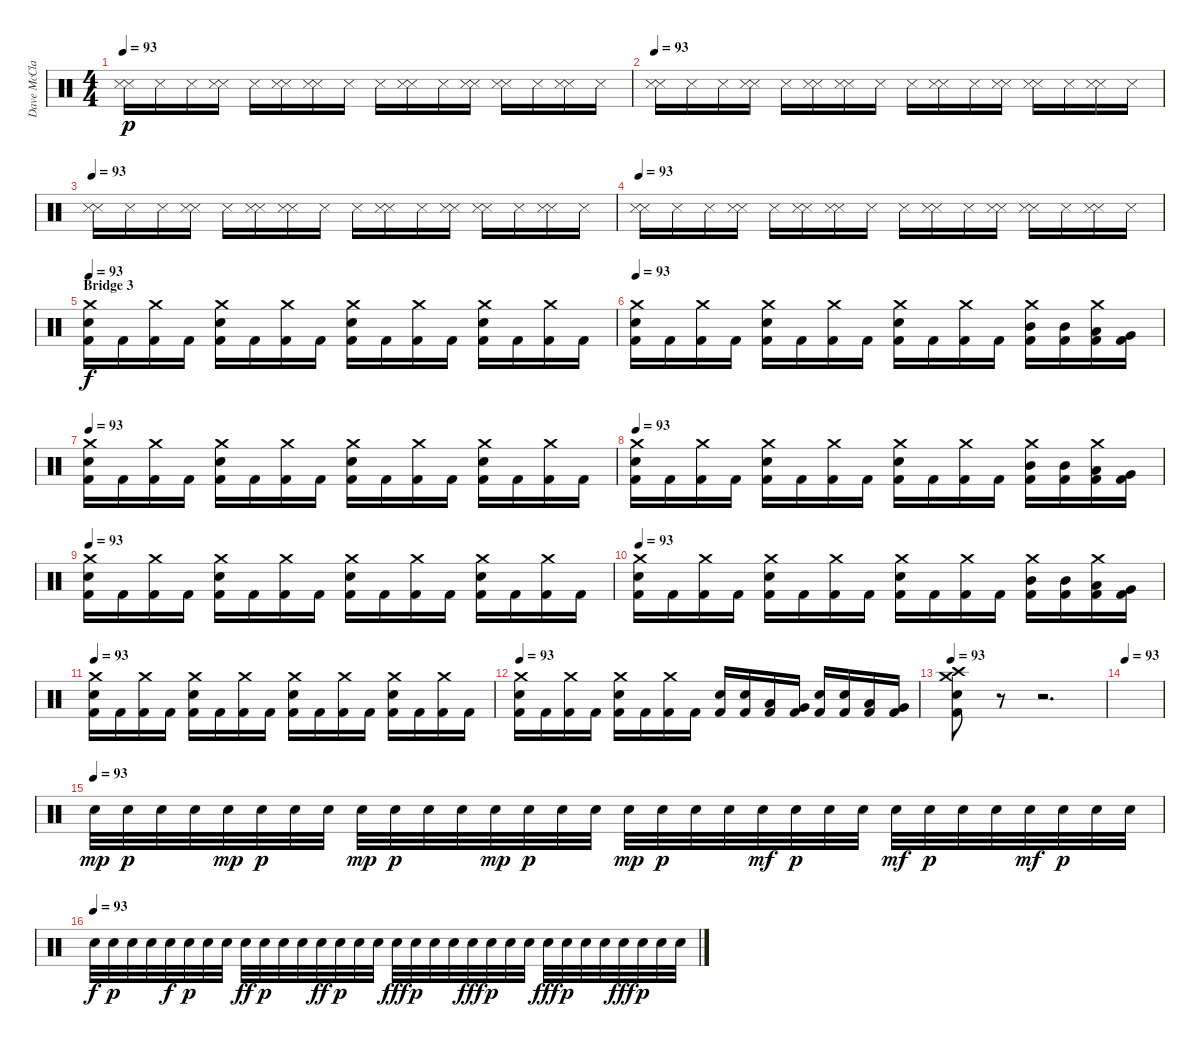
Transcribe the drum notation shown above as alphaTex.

\track ("Dave McClain" "Dave McCla") {instrument percussion}
\staff {score}
\articulation defaults
\ts (4 4)
\tempo 93
\clef neutral
\ks c
("Snare (side stick) 3" "Snare (side stick) 3").16{dy p} "Snare (side stick) 3".16 "Snare (side stick) 3".16 ("Snare (side stick) 3" "Snare (side stick) 3").16 "Snare (side stick) 3".16 ("Snare (side stick) 3" "Snare (side stick) 3").16 ("Snare (side stick) 3" "Snare (side stick) 3").16 "Snare (side stick) 3".16 "Snare (side stick) 3".16 ("Snare (side stick) 3" "Snare (side stick) 3").16 "Snare (side stick) 3".16 ("Snare (side stick) 3" "Snare (side stick) 3").16 ("Snare (side stick) 3" "Snare (side stick) 3").16 "Snare (side stick) 3".16 ("Snare (side stick) 3" "Snare (side stick) 3").16 "Snare (side stick) 3".16 |
\tempo 93
("Snare (side stick) 3" "Snare (side stick) 3").16 "Snare (side stick) 3".16 "Snare (side stick) 3".16 ("Snare (side stick) 3" "Snare (side stick) 3").16 "Snare (side stick) 3".16 ("Snare (side stick) 3" "Snare (side stick) 3").16 ("Snare (side stick) 3" "Snare (side stick) 3").16 "Snare (side stick) 3".16 "Snare (side stick) 3".16 ("Snare (side stick) 3" "Snare (side stick) 3").16 "Snare (side stick) 3".16 ("Snare (side stick) 3" "Snare (side stick) 3").16 ("Snare (side stick) 3" "Snare (side stick) 3").16 "Snare (side stick) 3".16 ("Snare (side stick) 3" "Snare (side stick) 3").16 "Snare (side stick) 3".16 |
\tempo 93
("Snare (side stick) 3" "Snare (side stick) 3").16 "Snare (side stick) 3".16 "Snare (side stick) 3".16 ("Snare (side stick) 3" "Snare (side stick) 3").16 "Snare (side stick) 3".16 ("Snare (side stick) 3" "Snare (side stick) 3").16 ("Snare (side stick) 3" "Snare (side stick) 3").16 "Snare (side stick) 3".16 "Snare (side stick) 3".16 ("Snare (side stick) 3" "Snare (side stick) 3").16 "Snare (side stick) 3".16 ("Snare (side stick) 3" "Snare (side stick) 3").16 ("Snare (side stick) 3" "Snare (side stick) 3").16 "Snare (side stick) 3".16 ("Snare (side stick) 3" "Snare (side stick) 3").16 "Snare (side stick) 3".16 |
\tempo 93
("Snare (side stick) 3" "Snare (side stick) 3").16 "Snare (side stick) 3".16 "Snare (side stick) 3".16 ("Snare (side stick) 3" "Snare (side stick) 3").16 "Snare (side stick) 3".16 ("Snare (side stick) 3" "Snare (side stick) 3").16 ("Snare (side stick) 3" "Snare (side stick) 3").16 "Snare (side stick) 3".16 "Snare (side stick) 3".16 ("Snare (side stick) 3" "Snare (side stick) 3").16 "Snare (side stick) 3".16 ("Snare (side stick) 3" "Snare (side stick) 3").16 ("Snare (side stick) 3" "Snare (side stick) 3").16 "Snare (side stick) 3".16 ("Snare (side stick) 3" "Snare (side stick) 3").16 "Snare (side stick) 3".16 |
\section ("" "Bridge 3")
\tempo 93
("Crash medium (hit)" "Snare (hit) 2" "Kick (hit) 2").16{dy f} "Kick (hit) 2".16 ("Crash medium (hit)" "Kick (hit) 2").16 "Kick (hit) 2".16 ("Crash medium (hit)" "Snare (hit) 2" "Kick (hit) 2").16 "Kick (hit) 2".16 ("Crash medium (hit)" "Kick (hit) 2").16 "Kick (hit) 2".16 ("Crash medium (hit)" "Snare (hit) 2" "Kick (hit) 2").16 "Kick (hit) 2".16 ("Crash medium (hit)" "Kick (hit) 2").16 "Kick (hit) 2".16 ("Crash medium (hit)" "Snare (hit) 2" "Kick (hit) 2").16 "Kick (hit) 2".16 ("Crash medium (hit)" "Kick (hit) 2").16 "Kick (hit) 2".16 |
\tempo 93
("Crash medium (hit)" "Snare (hit) 2" "Kick (hit) 2").16 "Kick (hit) 2".16 ("Crash medium (hit)" "Kick (hit) 2").16 "Kick (hit) 2".16 ("Crash medium (hit)" "Snare (hit) 2" "Kick (hit) 2").16 "Kick (hit) 2".16 ("Crash medium (hit)" "Kick (hit) 2").16 "Kick (hit) 2".16 ("Crash medium (hit)" "Snare (hit) 2" "Kick (hit) 2").16 "Kick (hit) 2".16 ("Crash medium (hit)" "Kick (hit) 2").16 "Kick (hit) 2".16 ("Crash medium (hit)" "Mid Tom (hit)" "Kick (hit) 2").16 ("Mid Tom (hit)" "Kick (hit) 2").16 ("Crash medium (hit)" "Low Tom (hit)" "Kick (hit) 2").16 ("Very Low Tom (hit)" "Kick (hit) 2").16 |
\tempo 93
("Crash medium (hit)" "Snare (hit) 2" "Kick (hit) 2").16 "Kick (hit) 2".16 ("Crash medium (hit)" "Kick (hit) 2").16 "Kick (hit) 2".16 ("Crash medium (hit)" "Snare (hit) 2" "Kick (hit) 2").16 "Kick (hit) 2".16 ("Crash medium (hit)" "Kick (hit) 2").16 "Kick (hit) 2".16 ("Crash medium (hit)" "Snare (hit) 2" "Kick (hit) 2").16 "Kick (hit) 2".16 ("Crash medium (hit)" "Kick (hit) 2").16 "Kick (hit) 2".16 ("Crash medium (hit)" "Snare (hit) 2" "Kick (hit) 2").16 "Kick (hit) 2".16 ("Crash medium (hit)" "Kick (hit) 2").16 "Kick (hit) 2".16 |
\tempo 93
("Crash medium (hit)" "Snare (hit) 2" "Kick (hit) 2").16 "Kick (hit) 2".16 ("Crash medium (hit)" "Kick (hit) 2").16 "Kick (hit) 2".16 ("Crash medium (hit)" "Snare (hit) 2" "Kick (hit) 2").16 "Kick (hit) 2".16 ("Crash medium (hit)" "Kick (hit) 2").16 "Kick (hit) 2".16 ("Crash medium (hit)" "Snare (hit) 2" "Kick (hit) 2").16 "Kick (hit) 2".16 ("Crash medium (hit)" "Kick (hit) 2").16 "Kick (hit) 2".16 ("Crash medium (hit)" "Mid Tom (hit)" "Kick (hit) 2").16 ("Mid Tom (hit)" "Kick (hit) 2").16 ("Crash medium (hit)" "Low Tom (hit)" "Kick (hit) 2").16 ("Very Low Tom (hit)" "Kick (hit) 2").16 |
\tempo 93
("Crash medium (hit)" "Snare (hit) 2" "Kick (hit) 2").16 "Kick (hit) 2".16 ("Crash medium (hit)" "Kick (hit) 2").16 "Kick (hit) 2".16 ("Crash medium (hit)" "Snare (hit) 2" "Kick (hit) 2").16 "Kick (hit) 2".16 ("Crash medium (hit)" "Kick (hit) 2").16 "Kick (hit) 2".16 ("Crash medium (hit)" "Snare (hit) 2" "Kick (hit) 2").16 "Kick (hit) 2".16 ("Crash medium (hit)" "Kick (hit) 2").16 "Kick (hit) 2".16 ("Crash medium (hit)" "Snare (hit) 2" "Kick (hit) 2").16 "Kick (hit) 2".16 ("Crash medium (hit)" "Kick (hit) 2").16 "Kick (hit) 2".16 |
\tempo 93
("Crash medium (hit)" "Snare (hit) 2" "Kick (hit) 2").16 "Kick (hit) 2".16 ("Crash medium (hit)" "Kick (hit) 2").16 "Kick (hit) 2".16 ("Crash medium (hit)" "Snare (hit) 2" "Kick (hit) 2").16 "Kick (hit) 2".16 ("Crash medium (hit)" "Kick (hit) 2").16 "Kick (hit) 2".16 ("Crash medium (hit)" "Snare (hit) 2" "Kick (hit) 2").16 "Kick (hit) 2".16 ("Crash medium (hit)" "Kick (hit) 2").16 "Kick (hit) 2".16 ("Crash medium (hit)" "Mid Tom (hit)" "Kick (hit) 2").16 ("Mid Tom (hit)" "Kick (hit) 2").16 ("Crash medium (hit)" "Low Tom (hit)" "Kick (hit) 2").16 ("Very Low Tom (hit)" "Kick (hit) 2").16 |
\tempo 93
("Crash medium (hit)" "Snare (hit) 2" "Kick (hit) 2").16 "Kick (hit) 2".16 ("Crash medium (hit)" "Kick (hit) 2").16 "Kick (hit) 2".16 ("Crash medium (hit)" "Snare (hit) 2" "Kick (hit) 2").16 "Kick (hit) 2".16 ("Crash medium (hit)" "Kick (hit) 2").16 "Kick (hit) 2".16 ("Crash medium (hit)" "Snare (hit) 2" "Kick (hit) 2").16 "Kick (hit) 2".16 ("Crash medium (hit)" "Kick (hit) 2").16 "Kick (hit) 2".16 ("Crash medium (hit)" "Snare (hit) 2" "Kick (hit) 2").16 "Kick (hit) 2".16 ("Crash medium (hit)" "Kick (hit) 2").16 "Kick (hit) 2".16 |
\tempo 93
("Crash medium (hit)" "Snare (hit) 2" "Kick (hit) 2").16 "Kick (hit) 2".16 ("Crash medium (hit)" "Kick (hit) 2").16 "Kick (hit) 2".16 ("Crash medium (hit)" "Snare (hit) 2" "Kick (hit) 2").16 "Kick (hit) 2".16 ("Crash medium (hit)" "Kick (hit) 2").16 "Kick (hit) 2".16 ("Snare (hit) 2" "Kick (hit) 2").16 ("Snare (hit) 2" "Kick (hit) 2").16 ("Low Tom (hit)" "Kick (hit) 2").16 ("Very Low Tom (hit)" "Kick (hit) 2").16 ("Snare (hit) 2" "Kick (hit) 2").16 ("Snare (hit) 2" "Kick (hit) 2").16 ("Low Tom (hit)" "Kick (hit) 2").16 ("Very Low Tom (hit)" "Kick (hit) 2").16 |
\tempo 93
("Crash medium (hit)" "Crash high (hit)" "Snare (hit) 2" "Kick (hit) 2").8 r.8 r.2{d} |
\tempo 93
|
\tempo (93)
"Snare (hit) 2".32{dy mp} "Snare (hit) 2".32{dy p} "Snare (hit) 2".32 "Snare (hit) 2".32 "Snare (hit) 2".32{dy mp} "Snare (hit) 2".32{dy p} "Snare (hit) 2".32 "Snare (hit) 2".32 "Snare (hit) 2".32{dy mp} "Snare (hit) 2".32{dy p} "Snare (hit) 2".32 "Snare (hit) 2".32 "Snare (hit) 2".32{dy mp} "Snare (hit) 2".32{dy p} "Snare (hit) 2".32 "Snare (hit) 2".32 "Snare (hit) 2".32{dy mp} "Snare (hit) 2".32{dy p} "Snare (hit) 2".32 "Snare (hit) 2".32 "Snare (hit) 2".32{dy mf} "Snare (hit) 2".32{dy p} "Snare (hit) 2".32 "Snare (hit) 2".32 "Snare (hit) 2".32{dy mf} "Snare (hit) 2".32{dy p} "Snare (hit) 2".32 "Snare (hit) 2".32 "Snare (hit) 2".32{dy mf} "Snare (hit) 2".32{dy p} "Snare (hit) 2".32 "Snare (hit) 2".32 |
\tempo (93)
"Snare (hit) 2".32{dy f} "Snare (hit) 2".32{dy p} "Snare (hit) 2".32 "Snare (hit) 2".32 "Snare (hit) 2".32{dy f} "Snare (hit) 2".32{dy p} "Snare (hit) 2".32 "Snare (hit) 2".32 "Snare (hit) 2".32{dy ff} "Snare (hit) 2".32{dy p} "Snare (hit) 2".32 "Snare (hit) 2".32 "Snare (hit) 2".32{dy ff} "Snare (hit) 2".32{dy p} "Snare (hit) 2".32 "Snare (hit) 2".32 "Snare (hit) 2".32{dy fff} "Snare (hit) 2".32{dy p} "Snare (hit) 2".32 "Snare (hit) 2".32 "Snare (hit) 2".32{dy fff} "Snare (hit) 2".32{dy p} "Snare (hit) 2".32 "Snare (hit) 2".32 "Snare (hit) 2".32{dy fff} "Snare (hit) 2".32{dy p} "Snare (hit) 2".32 "Snare (hit) 2".32 "Snare (hit) 2".32{dy fff} "Snare (hit) 2".32{dy p} "Snare (hit) 2".32 "Snare (hit) 2".32
